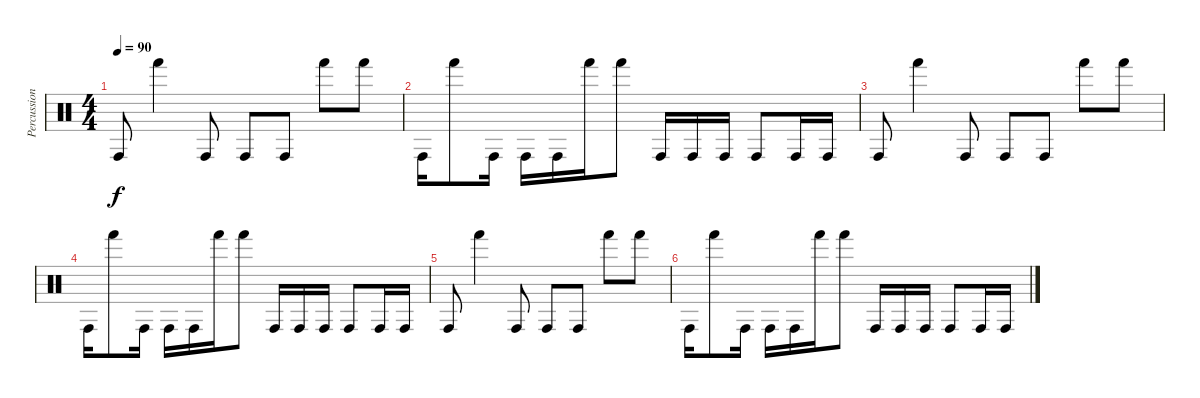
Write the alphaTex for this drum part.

\track ("Percussions" "Percussion") {instrument percussion}
\staff {score}
\articulation defaults
\ts (4 4)
\tempo 90
\clef neutral
\ks c "Conga high (hit)".8{dy f} "Hand (hit)".4 "Conga high (hit)".8 "Conga high (hit)".8 "Conga high (hit)".8 "Hand (hit)".8 "Hand (hit)".8
|
"Conga high (hit)".16 "Hand (hit)".8 "Conga high (hit)".16 "Conga high (hit)".16 "Conga high (hit)".16 "Hand (hit)".16 "Hand (hit)".8 "Conga high (hit)".16 "Conga high (hit)".16 "Conga high (hit)".16 "Conga high (hit)".8 "Conga high (hit)".16 "Conga high (hit)".16 |
"Conga high (hit)".8 "Hand (hit)".4 "Conga high (hit)".8 "Conga high (hit)".8 "Conga high (hit)".8 "Hand (hit)".8 "Hand (hit)".8 |
"Conga high (hit)".16 "Hand (hit)".8 "Conga high (hit)".16 "Conga high (hit)".16 "Conga high (hit)".16 "Hand (hit)".16 "Hand (hit)".8 "Conga high (hit)".16 "Conga high (hit)".16 "Conga high (hit)".16 "Conga high (hit)".8 "Conga high (hit)".16 "Conga high (hit)".16 |
"Conga high (hit)".8 "Hand (hit)".4 "Conga high (hit)".8 "Conga high (hit)".8 "Conga high (hit)".8 "Hand (hit)".8 "Hand (hit)".8 |
"Conga high (hit)".16 "Hand (hit)".8 "Conga high (hit)".16 "Conga high (hit)".16 "Conga high (hit)".16 "Hand (hit)".16 "Hand (hit)".8 "Conga high (hit)".16 "Conga high (hit)".16 "Conga high (hit)".16 "Conga high (hit)".8 "Conga high (hit)".16 "Conga high (hit)".16
